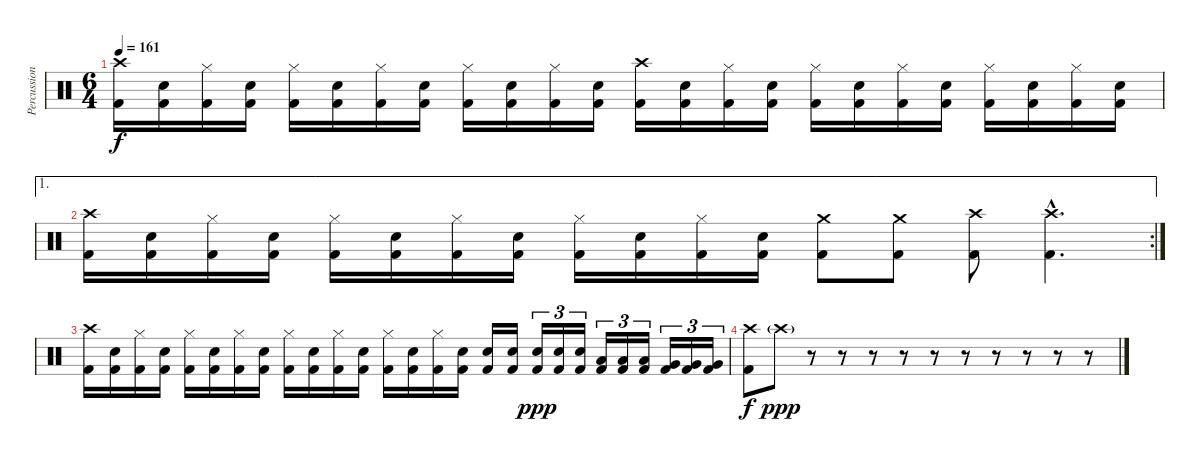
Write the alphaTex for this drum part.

\track ("Percussion" "Percussion") {instrument percussion}
\staff {score}
\articulation defaults
\ts (6 4)
\tempo 161
\clef neutral
\ks c
("Crash high (hit)" "Kick (hit) 2").16{dy f} ("Snare (hit) 2" "Kick (hit) 2").16 ("Hi-Hat (closed)" "Kick (hit) 2").16 ("Snare (hit) 2" "Kick (hit) 2").16 ("Hi-Hat (closed)" "Kick (hit) 2").16 ("Snare (hit) 2" "Kick (hit) 2").16 ("Hi-Hat (closed)" "Kick (hit) 2").16 ("Snare (hit) 2" "Kick (hit) 2").16 ("Hi-Hat (closed)" "Kick (hit) 2").16 ("Snare (hit) 2" "Kick (hit) 2").16 ("Hi-Hat (closed)" "Kick (hit) 2").16 ("Snare (hit) 2" "Kick (hit) 2").16 ("Crash high (hit)" "Kick (hit) 2").16 ("Snare (hit) 2" "Kick (hit) 2").16 ("Hi-Hat (closed)" "Kick (hit) 2").16 ("Snare (hit) 2" "Kick (hit) 2").16 ("Hi-Hat (closed)" "Kick (hit) 2").16 ("Snare (hit) 2" "Kick (hit) 2").16 ("Hi-Hat (closed)" "Kick (hit) 2").16 ("Snare (hit) 2" "Kick (hit) 2").16 ("Hi-Hat (closed)" "Kick (hit) 2").16 ("Snare (hit) 2" "Kick (hit) 2").16 ("Hi-Hat (closed)" "Kick (hit) 2").16 ("Snare (hit) 2" "Kick (hit) 2").16 |
\ae 1
\rc 2
("Crash high (hit)" "Kick (hit) 2").16 ("Snare (hit) 2" "Kick (hit) 2").16 ("Hi-Hat (closed)" "Kick (hit) 2").16 ("Snare (hit) 2" "Kick (hit) 2").16 ("Hi-Hat (closed)" "Kick (hit) 2").16 ("Snare (hit) 2" "Kick (hit) 2").16 ("Hi-Hat (closed)" "Kick (hit) 2").16 ("Snare (hit) 2" "Kick (hit) 2").16 ("Hi-Hat (closed)" "Kick (hit) 2").16 ("Snare (hit) 2" "Kick (hit) 2").16 ("Hi-Hat (closed)" "Kick (hit) 2").16 ("Snare (hit) 2" "Kick (hit) 2").16 ("Crash medium (hit)" "Kick (hit) 2").8 ("Crash medium (hit)" "Kick (hit) 2").8 ("Crash high (hit)" "Kick (hit) 2").8 ("Crash high (hit)"{hac} "Kick (hit) 2"{hac}).4{d} |
("Crash high (hit)" "Kick (hit) 2").16 ("Snare (hit) 2" "Kick (hit) 2").16 ("Hi-Hat (closed)" "Kick (hit) 2").16 ("Snare (hit) 2" "Kick (hit) 2").16 ("Hi-Hat (closed)" "Kick (hit) 2").16 ("Snare (hit) 2" "Kick (hit) 2").16 ("Hi-Hat (closed)" "Kick (hit) 2").16 ("Snare (hit) 2" "Kick (hit) 2").16 ("Hi-Hat (closed)" "Kick (hit) 2").16 ("Snare (hit) 2" "Kick (hit) 2").16 ("Hi-Hat (closed)" "Kick (hit) 2").16 ("Snare (hit) 2" "Kick (hit) 2").16 ("Hi-Hat (closed)" "Kick (hit) 2").16 ("Snare (hit) 2" "Kick (hit) 2").16 ("Hi-Hat (closed)" "Kick (hit) 2").16 ("Snare (hit) 2" "Kick (hit) 2").16 ("Snare (hit) 2" "Kick (hit) 2").16 ("Snare (hit) 2" "Kick (hit) 2").16 ("Snare (hit) 2" "Kick (hit) 2").16{tu (3 2) dy ppp} ("Snare (hit) 2" "Kick (hit) 2").16{tu (3 2)} ("Snare (hit) 2" "Kick (hit) 2").16{tu (3 2)} ("Low Tom (hit)" "Kick (hit) 2").16{tu (3 2)} ("Low Tom (hit)" "Kick (hit) 2").16{tu (3 2)} ("Low Tom (hit)" "Kick (hit) 2").16{tu (3 2)} ("Very Low Tom (hit)" "Kick (hit) 2").16{tu (3 2)} ("Very Low Tom (hit)" "Kick (hit) 2").16{tu (3 2)} ("Very Low Tom (hit)" "Kick (hit) 2").16{tu (3 2)} |
("Crash high (hit)" "Kick (hit) 2").8{dy f} "Crash high (hit)"{g}.8{dy ppp} r.8 r.8 r.8 r.8 r.8 r.8 r.8 r.8 r.8 r.8
